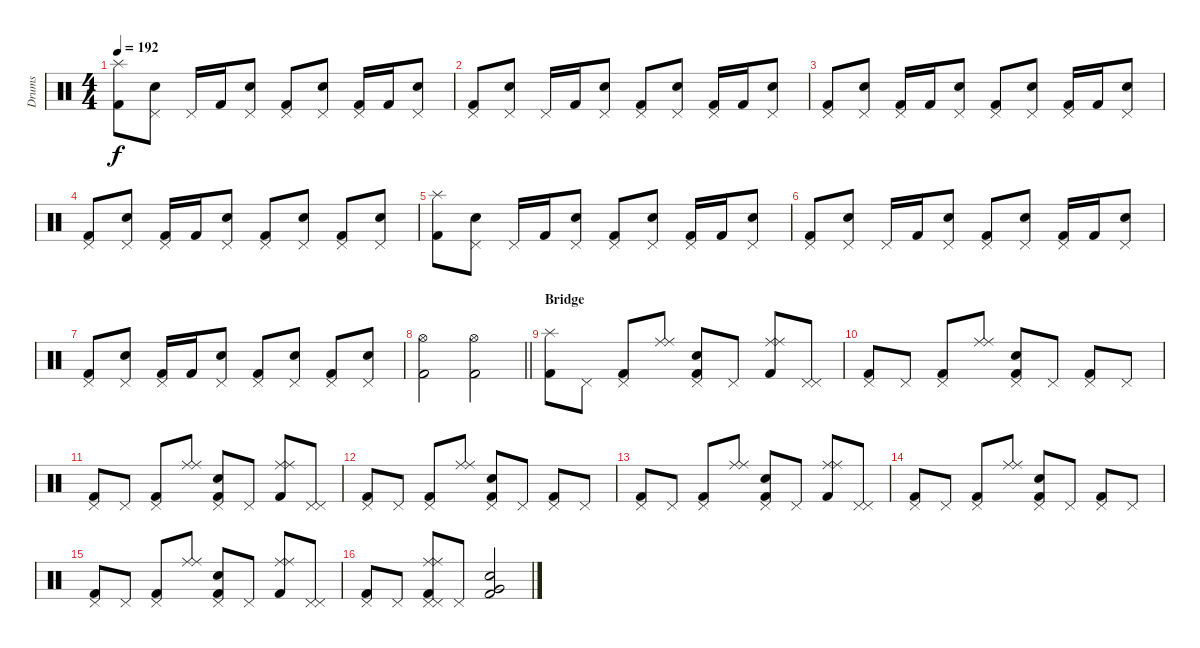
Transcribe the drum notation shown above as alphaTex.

\track ("Drums" "Drums") {instrument percussion}
\staff {score}
\articulation defaults
\ts (4 4)
\tempo 192
\clef neutral
\ks c
("Splash (hit)" "Kick (hit) 2").8{dy f} ("Pedal Hi-Hat (hit)" "Electric Snare (hit)").8 "Pedal Hi-Hat (hit)".16 "Kick (hit) 2".16 ("Pedal Hi-Hat (hit)" "Electric Snare (hit)").8 ("Pedal Hi-Hat (hit)" "Kick (hit) 2").8 ("Pedal Hi-Hat (hit)" "Electric Snare (hit)").8 ("Pedal Hi-Hat (hit)" "Kick (hit) 2").16 "Kick (hit) 2".16 ("Pedal Hi-Hat (hit)" "Electric Snare (hit)").8 |
("Pedal Hi-Hat (hit)" "Kick (hit) 2").8 ("Pedal Hi-Hat (hit)" "Electric Snare (hit)").8 "Pedal Hi-Hat (hit)".16 "Kick (hit) 2".16 ("Pedal Hi-Hat (hit)" "Electric Snare (hit)").8 ("Pedal Hi-Hat (hit)" "Kick (hit) 2").8 ("Pedal Hi-Hat (hit)" "Electric Snare (hit)").8 ("Pedal Hi-Hat (hit)" "Kick (hit) 2").16 "Kick (hit) 2".16 ("Pedal Hi-Hat (hit)" "Electric Snare (hit)").8 |
("Pedal Hi-Hat (hit)" "Kick (hit) 2").8 ("Pedal Hi-Hat (hit)" "Electric Snare (hit)").8 ("Pedal Hi-Hat (hit)" "Kick (hit) 2").16 "Kick (hit) 2".16 ("Pedal Hi-Hat (hit)" "Electric Snare (hit)").8 ("Pedal Hi-Hat (hit)" "Kick (hit) 2").8 ("Pedal Hi-Hat (hit)" "Electric Snare (hit)").8 ("Pedal Hi-Hat (hit)" "Kick (hit) 2").16 "Kick (hit) 2".16 ("Pedal Hi-Hat (hit)" "Electric Snare (hit)").8 |
("Pedal Hi-Hat (hit)" "Kick (hit) 2").8 ("Pedal Hi-Hat (hit)" "Electric Snare (hit)").8 ("Pedal Hi-Hat (hit)" "Kick (hit) 2").16 "Kick (hit) 2".16 ("Pedal Hi-Hat (hit)" "Electric Snare (hit)").8 ("Pedal Hi-Hat (hit)" "Kick (hit) 2").8 ("Pedal Hi-Hat (hit)" "Electric Snare (hit)").8 ("Pedal Hi-Hat (hit)" "Kick (hit) 2").8 ("Pedal Hi-Hat (hit)" "Electric Snare (hit)").8 |
("Splash (hit)" "Kick (hit) 2").8 ("Pedal Hi-Hat (hit)" "Electric Snare (hit)").8 "Pedal Hi-Hat (hit)".16 "Kick (hit) 2".16 ("Pedal Hi-Hat (hit)" "Electric Snare (hit)").8 ("Pedal Hi-Hat (hit)" "Kick (hit) 2").8 ("Pedal Hi-Hat (hit)" "Electric Snare (hit)").8 ("Pedal Hi-Hat (hit)" "Kick (hit) 2").16 "Kick (hit) 2".16 ("Pedal Hi-Hat (hit)" "Electric Snare (hit)").8 |
("Pedal Hi-Hat (hit)" "Kick (hit) 2").8 ("Pedal Hi-Hat (hit)" "Electric Snare (hit)").8 "Pedal Hi-Hat (hit)".16 "Kick (hit) 2".16 ("Pedal Hi-Hat (hit)" "Electric Snare (hit)").8 ("Pedal Hi-Hat (hit)" "Kick (hit) 2").8 ("Pedal Hi-Hat (hit)" "Electric Snare (hit)").8 ("Pedal Hi-Hat (hit)" "Kick (hit) 2").16 "Kick (hit) 2".16 ("Pedal Hi-Hat (hit)" "Electric Snare (hit)").8 |
("Pedal Hi-Hat (hit)" "Kick (hit) 2").8 ("Pedal Hi-Hat (hit)" "Electric Snare (hit)").8 ("Pedal Hi-Hat (hit)" "Kick (hit) 2").16 "Kick (hit) 2".16 ("Pedal Hi-Hat (hit)" "Electric Snare (hit)").8 ("Pedal Hi-Hat (hit)" "Kick (hit) 2").8 ("Pedal Hi-Hat (hit)" "Electric Snare (hit)").8 ("Pedal Hi-Hat (hit)" "Kick (hit) 2").8 ("Pedal Hi-Hat (hit)" "Electric Snare (hit)").8 |
\barLineRight lightlight
("Hi-Hat (open)" "Kick (hit) 2").2 ("Hi-Hat (open)" "Kick (hit) 2").2 |
\section ("" "Bridge")
("Splash (hit)" "Kick (hit) 2").8 "Pedal Hi-Hat (hit)".8 ("Pedal Hi-Hat (hit)" "Kick (hit) 2").8 ("Ride (middle)" "Ride (middle)").8 ("Pedal Hi-Hat (hit)" "Electric Snare (hit)" "Kick (hit) 2").8 "Pedal Hi-Hat (hit)".8 ("Ride (middle)" "Ride (middle)" "Kick (hit) 2").8 ("Pedal Hi-Hat (hit)" "Pedal Hi-Hat (hit)").8 |
("Pedal Hi-Hat (hit)" "Kick (hit) 2").8 "Pedal Hi-Hat (hit)".8 ("Pedal Hi-Hat (hit)" "Kick (hit) 2").8 ("Ride (middle)" "Ride (middle)").8 ("Pedal Hi-Hat (hit)" "Electric Snare (hit)" "Kick (hit) 2").8 "Pedal Hi-Hat (hit)".8 ("Pedal Hi-Hat (hit)" "Kick (hit) 2").8 "Pedal Hi-Hat (hit)".8 |
("Pedal Hi-Hat (hit)" "Kick (hit) 2").8 "Pedal Hi-Hat (hit)".8 ("Pedal Hi-Hat (hit)" "Kick (hit) 2").8 ("Ride (middle)" "Ride (middle)").8 ("Pedal Hi-Hat (hit)" "Electric Snare (hit)" "Kick (hit) 2").8 "Pedal Hi-Hat (hit)".8 ("Ride (middle)" "Ride (middle)" "Kick (hit) 2").8 ("Pedal Hi-Hat (hit)" "Pedal Hi-Hat (hit)").8 |
("Pedal Hi-Hat (hit)" "Kick (hit) 2").8 "Pedal Hi-Hat (hit)".8 ("Pedal Hi-Hat (hit)" "Kick (hit) 2").8 ("Ride (middle)" "Ride (middle)").8 ("Pedal Hi-Hat (hit)" "Electric Snare (hit)" "Kick (hit) 2").8 "Pedal Hi-Hat (hit)".8 ("Pedal Hi-Hat (hit)" "Kick (hit) 2").8 "Pedal Hi-Hat (hit)".8 |
("Pedal Hi-Hat (hit)" "Kick (hit) 2").8 "Pedal Hi-Hat (hit)".8 ("Pedal Hi-Hat (hit)" "Kick (hit) 2").8 ("Ride (middle)" "Ride (middle)").8 ("Pedal Hi-Hat (hit)" "Electric Snare (hit)" "Kick (hit) 2").8 "Pedal Hi-Hat (hit)".8 ("Ride (middle)" "Ride (middle)" "Kick (hit) 2").8 ("Pedal Hi-Hat (hit)" "Pedal Hi-Hat (hit)").8 |
("Pedal Hi-Hat (hit)" "Kick (hit) 2").8 "Pedal Hi-Hat (hit)".8 ("Pedal Hi-Hat (hit)" "Kick (hit) 2").8 ("Ride (middle)" "Ride (middle)").8 ("Pedal Hi-Hat (hit)" "Electric Snare (hit)" "Kick (hit) 2").8 "Pedal Hi-Hat (hit)".8 ("Pedal Hi-Hat (hit)" "Kick (hit) 2").8 "Pedal Hi-Hat (hit)".8 |
("Pedal Hi-Hat (hit)" "Kick (hit) 2").8 "Pedal Hi-Hat (hit)".8 ("Pedal Hi-Hat (hit)" "Kick (hit) 2").8 ("Ride (middle)" "Ride (middle)").8 ("Pedal Hi-Hat (hit)" "Electric Snare (hit)" "Kick (hit) 2").8 "Pedal Hi-Hat (hit)".8 ("Ride (middle)" "Ride (middle)" "Kick (hit) 2").8 ("Pedal Hi-Hat (hit)" "Pedal Hi-Hat (hit)").8 |
("Pedal Hi-Hat (hit)" "Kick (hit) 2").8 "Pedal Hi-Hat (hit)".8 ("Ride (middle)" "Ride (middle)" "Pedal Hi-Hat (hit)" "Pedal Hi-Hat (hit)" "Kick (hit) 2").8 "Pedal Hi-Hat (hit)".8 ("Very Low Tom (hit)" "Electric Snare (hit)" "Kick (hit) 2").2
